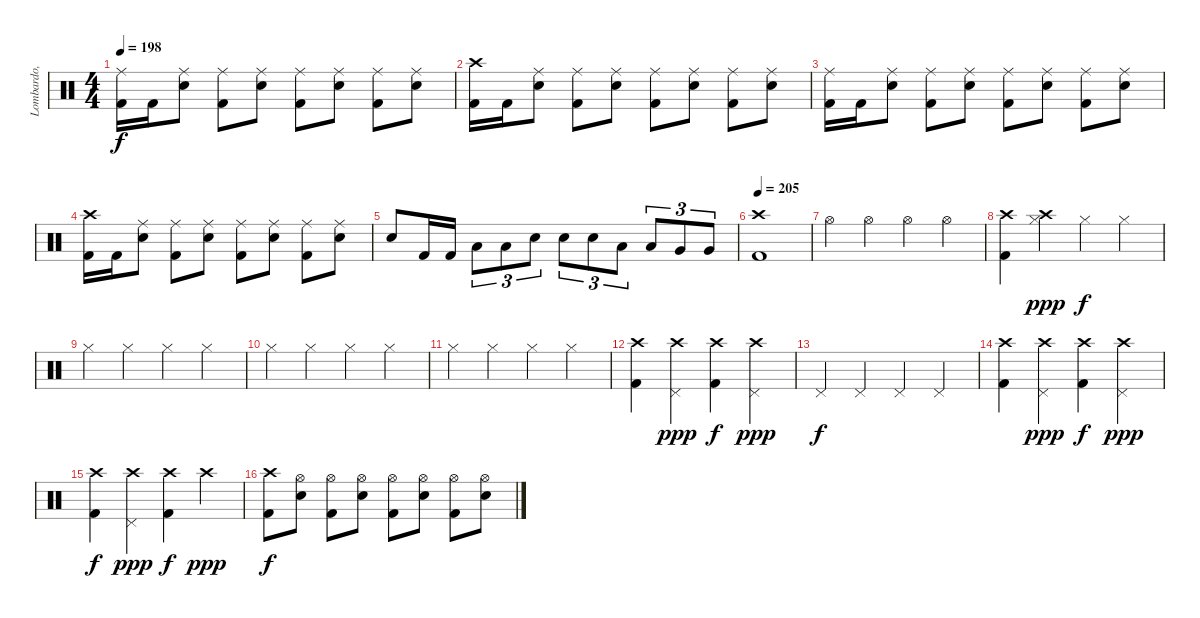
\track ("Lombardo, Dave" "Lombardo, ") {instrument percussion}
\staff {score}
\articulation defaults
\ts (4 4)
\tempo 198
\clef neutral
\ks c
("Kick (hit) 2" "Ride (middle)").16{dy f} "Kick (hit) 2".16 ("Electric Snare (hit)" "Ride (middle)").8 ("Kick (hit) 2" "Ride (middle)").8 ("Electric Snare (hit)" "Ride (middle)").8 ("Kick (hit) 2" "Ride (middle)").8 ("Electric Snare (hit)" "Ride (middle)").8 ("Kick (hit) 2" "Ride (middle)").8 ("Electric Snare (hit)" "Ride (middle)").8 |
("Kick (hit) 2" "Crash high (hit)").16 "Kick (hit) 2".16 ("Electric Snare (hit)" "Ride (middle)").8 ("Kick (hit) 2" "Ride (middle)").8 ("Electric Snare (hit)" "Ride (middle)").8 ("Kick (hit) 2" "Ride (middle)").8 ("Electric Snare (hit)" "Ride (middle)").8 ("Kick (hit) 2" "Ride (middle)").8 ("Electric Snare (hit)" "Ride (middle)").8 |
("Kick (hit) 2" "Ride (middle)").16 "Kick (hit) 2".16 ("Electric Snare (hit)" "Ride (middle)").8 ("Kick (hit) 2" "Ride (middle)").8 ("Electric Snare (hit)" "Ride (middle)").8 ("Kick (hit) 2" "Ride (middle)").8 ("Electric Snare (hit)" "Ride (middle)").8 ("Kick (hit) 2" "Ride (middle)").8 ("Electric Snare (hit)" "Ride (middle)").8 |
("Kick (hit) 2" "Crash high (hit)").16 "Kick (hit) 2".16 ("Electric Snare (hit)" "Ride (middle)").8 ("Kick (hit) 2" "Ride (middle)").8 ("Electric Snare (hit)" "Ride (middle)").8 ("Kick (hit) 2" "Ride (middle)").8 ("Electric Snare (hit)" "Ride (middle)").8 ("Kick (hit) 2" "Ride (middle)").8 ("Electric Snare (hit)" "Ride (middle)").8 |
"Electric Snare (hit)".8 "Kick (hit) 2".16 "Kick (hit) 2".16 "Low Tom (hit)".8{tu (3 2)} "Low Tom (hit)".8{tu (3 2)} "Electric Snare (hit)".8{tu (3 2)} "Electric Snare (hit)".8{tu (3 2)} "Electric Snare (hit)".8{tu (3 2)} "Low Tom (hit)".8{tu (3 2)} "Low Tom (hit)".8{tu (3 2)} "Very Low Tom (hit)".8{tu (3 2)} "Very Low Tom (hit)".8{tu (3 2)} |
\tempo 205
("Crash high (hit)" "Kick (hit) 2").1 |
"Hi-Hat (open)".4 "Hi-Hat (open)".4 "Hi-Hat (open)".4 "Hi-Hat (open)".4 |
("Kick (hit) 2" "Crash high (hit)").4 ("Crash high (hit)" "Hi-Hat (closed)").4{dy ppp} "Hi-Hat (closed)".4{dy f} "Hi-Hat (closed)".4 |
"Hi-Hat (closed)".4 "Hi-Hat (closed)".4 "Hi-Hat (closed)".4 "Hi-Hat (closed)".4 |
"Hi-Hat (closed)".4 "Hi-Hat (closed)".4 "Hi-Hat (closed)".4 "Hi-Hat (closed)".4 |
"Hi-Hat (closed)".4 "Hi-Hat (closed)".4 "Hi-Hat (closed)".4 "Hi-Hat (closed)".4 |
("Crash high (hit)" "Kick (hit) 2").4 ("Crash high (hit)" "Pedal Hi-Hat (hit)").4{dy ppp} ("Crash high (hit)" "Kick (hit) 2").4{dy f} ("Crash high (hit)" "Pedal Hi-Hat (hit)").4{dy ppp} |
"Pedal Hi-Hat (hit)".4{dy f} "Pedal Hi-Hat (hit)".4 "Pedal Hi-Hat (hit)".4 "Pedal Hi-Hat (hit)".4 |
("Crash high (hit)" "Kick (hit) 2").4 ("Crash high (hit)" "Pedal Hi-Hat (hit)").4{dy ppp} ("Crash high (hit)" "Kick (hit) 2").4{dy f} ("Crash high (hit)" "Pedal Hi-Hat (hit)").4{dy ppp} |
("Crash high (hit)" "Kick (hit) 2").4{dy f} ("Crash high (hit)" "Pedal Hi-Hat (hit)").4{dy ppp} ("Crash high (hit)" "Kick (hit) 2").4{dy f} "Crash high (hit)".4{dy ppp} |
("Crash high (hit)" "Kick (hit) 2").8{dy f} ("Electric Snare (hit)" "Hi-Hat (open)").8 ("Kick (hit) 2" "Hi-Hat (open)").8 ("Electric Snare (hit)" "Hi-Hat (open)").8 ("Kick (hit) 2" "Hi-Hat (open)").8 ("Electric Snare (hit)" "Hi-Hat (open)").8 ("Kick (hit) 2" "Hi-Hat (open)").8 ("Electric Snare (hit)" "Hi-Hat (open)").8
